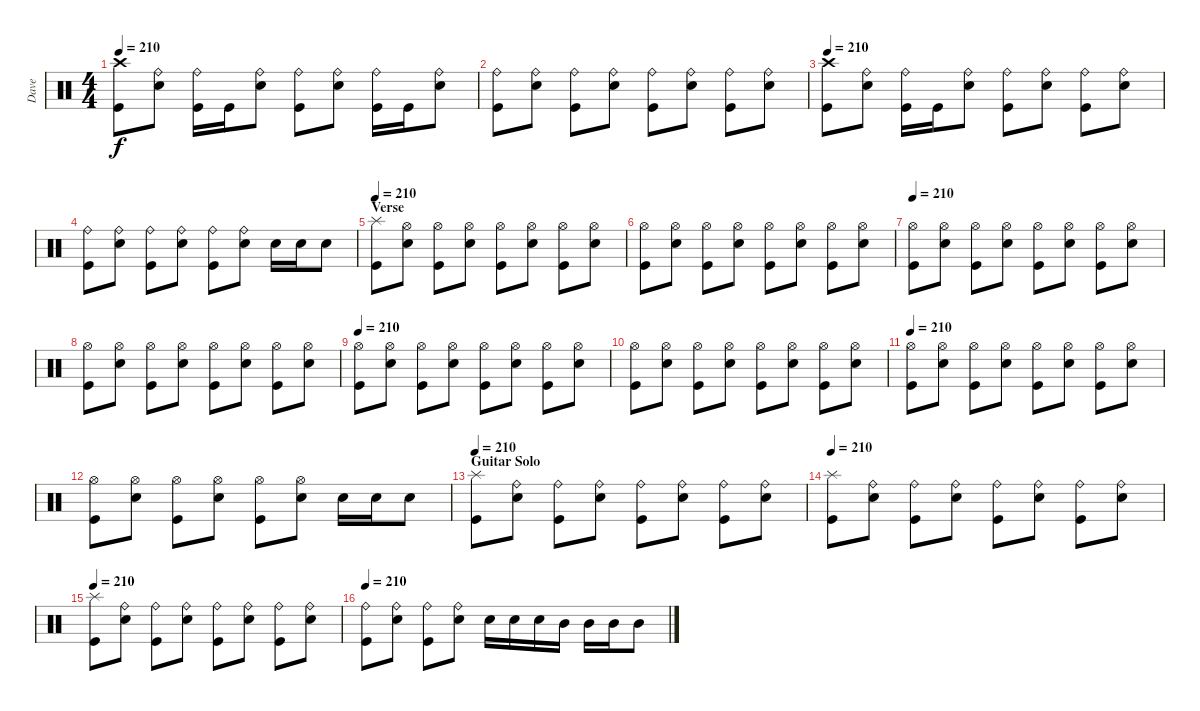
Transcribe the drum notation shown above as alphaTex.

\track ("Dave" "Dave") {instrument percussion}
\staff {score}
\articulation defaults
\ts (4 4)
\tempo 210
\clef neutral
\ks c
("Kick (hit)" "Crash high (hit)").8{dy f} ("Electric Snare (hit)" "Ride (bell)").8 ("Kick (hit)" "Ride (bell)").16 "Kick (hit)".16 ("Electric Snare (hit)" "Ride (bell)").8 ("Kick (hit)" "Ride (bell)").8 ("Electric Snare (hit)" "Ride (bell)").8 ("Kick (hit)" "Ride (bell)").16 "Kick (hit)".16 ("Electric Snare (hit)" "Ride (bell)").8 |
("Kick (hit)" "Ride (bell)").8 ("Electric Snare (hit)" "Ride (bell)").8 ("Kick (hit)" "Ride (bell)").8 ("Electric Snare (hit)" "Ride (bell)").8 ("Kick (hit)" "Ride (bell)").8 ("Electric Snare (hit)" "Ride (bell)").8 ("Kick (hit)" "Ride (bell)").8 ("Electric Snare (hit)" "Ride (bell)").8 |
\tempo 210
("Kick (hit)" "Crash high (hit)").8 ("Electric Snare (hit)" "Ride (bell)").8 ("Kick (hit)" "Ride (bell)").16 "Kick (hit)".16 ("Electric Snare (hit)" "Ride (bell)").8 ("Kick (hit)" "Ride (bell)").8 ("Electric Snare (hit)" "Ride (bell)").8 ("Kick (hit)" "Ride (bell)").8 ("Electric Snare (hit)" "Ride (bell)").8 |
("Kick (hit)" "Ride (bell)").8 ("Electric Snare (hit)" "Ride (bell)").8 ("Kick (hit)" "Ride (bell)").8 ("Electric Snare (hit)" "Ride (bell)").8 ("Kick (hit)" "Ride (bell)").8 ("Electric Snare (hit)" "Ride (bell)").8 "Electric Snare (hit)".16 "Electric Snare (hit)".16 "Electric Snare (hit)".8 |
\section ("" "Verse")
\tempo 210
("Kick (hit)" "Splash (hit)").8 ("Electric Snare (hit)" "Hi-Hat (open)").8 ("Kick (hit)" "Hi-Hat (open)").8 ("Electric Snare (hit)" "Hi-Hat (open)").8 ("Kick (hit)" "Hi-Hat (open)").8 ("Electric Snare (hit)" "Hi-Hat (open)").8 ("Kick (hit)" "Hi-Hat (open)").8 ("Electric Snare (hit)" "Hi-Hat (open)").8 |
("Kick (hit)" "Hi-Hat (open)").8 ("Electric Snare (hit)" "Hi-Hat (open)").8 ("Kick (hit)" "Hi-Hat (open)").8 ("Electric Snare (hit)" "Hi-Hat (open)").8 ("Kick (hit)" "Hi-Hat (open)").8 ("Electric Snare (hit)" "Hi-Hat (open)").8 ("Kick (hit)" "Hi-Hat (open)").8 ("Electric Snare (hit)" "Hi-Hat (open)").8 |
\tempo 210
("Kick (hit)" "Hi-Hat (open)").8 ("Electric Snare (hit)" "Hi-Hat (open)").8 ("Kick (hit)" "Hi-Hat (open)").8 ("Electric Snare (hit)" "Hi-Hat (open)").8 ("Kick (hit)" "Hi-Hat (open)").8 ("Electric Snare (hit)" "Hi-Hat (open)").8 ("Kick (hit)" "Hi-Hat (open)").8 ("Electric Snare (hit)" "Hi-Hat (open)").8 |
("Kick (hit)" "Hi-Hat (open)").8 ("Electric Snare (hit)" "Hi-Hat (open)").8 ("Kick (hit)" "Hi-Hat (open)").8 ("Electric Snare (hit)" "Hi-Hat (open)").8 ("Kick (hit)" "Hi-Hat (open)").8 ("Electric Snare (hit)" "Hi-Hat (open)").8 ("Kick (hit)" "Hi-Hat (open)").8 ("Electric Snare (hit)" "Hi-Hat (open)").8 |
\tempo 210
("Kick (hit)" "Hi-Hat (open)").8 ("Electric Snare (hit)" "Hi-Hat (open)").8 ("Kick (hit)" "Hi-Hat (open)").8 ("Electric Snare (hit)" "Hi-Hat (open)").8 ("Kick (hit)" "Hi-Hat (open)").8 ("Electric Snare (hit)" "Hi-Hat (open)").8 ("Kick (hit)" "Hi-Hat (open)").8 ("Electric Snare (hit)" "Hi-Hat (open)").8 |
("Kick (hit)" "Hi-Hat (open)").8 ("Electric Snare (hit)" "Hi-Hat (open)").8 ("Kick (hit)" "Hi-Hat (open)").8 ("Electric Snare (hit)" "Hi-Hat (open)").8 ("Kick (hit)" "Hi-Hat (open)").8 ("Electric Snare (hit)" "Hi-Hat (open)").8 ("Kick (hit)" "Hi-Hat (open)").8 ("Electric Snare (hit)" "Hi-Hat (open)").8 |
\tempo 210
("Kick (hit)" "Hi-Hat (open)").8 ("Electric Snare (hit)" "Hi-Hat (open)").8 ("Kick (hit)" "Hi-Hat (open)").8 ("Electric Snare (hit)" "Hi-Hat (open)").8 ("Kick (hit)" "Hi-Hat (open)").8 ("Electric Snare (hit)" "Hi-Hat (open)").8 ("Kick (hit)" "Hi-Hat (open)").8 ("Electric Snare (hit)" "Hi-Hat (open)").8 |
("Kick (hit)" "Hi-Hat (open)").8 ("Electric Snare (hit)" "Hi-Hat (open)").8 ("Kick (hit)" "Hi-Hat (open)").8 ("Electric Snare (hit)" "Hi-Hat (open)").8 ("Kick (hit)" "Hi-Hat (open)").8 ("Electric Snare (hit)" "Hi-Hat (open)").8 "Electric Snare (hit)".16 "Electric Snare (hit)".16 "Electric Snare (hit)".8 |
\section ("" "Guitar Solo")
\tempo 210
("Kick (hit)" "Splash (hit)").8 ("Electric Snare (hit)" "Ride (bell)").8 ("Kick (hit)" "Ride (bell)").8 ("Electric Snare (hit)" "Ride (bell)").8 ("Kick (hit)" "Ride (bell)").8 ("Electric Snare (hit)" "Ride (bell)").8 ("Kick (hit)" "Ride (bell)").8 ("Electric Snare (hit)" "Ride (bell)").8 |
\tempo 210
("Kick (hit)" "Splash (hit)").8 ("Electric Snare (hit)" "Ride (bell)").8 ("Kick (hit)" "Ride (bell)").8 ("Electric Snare (hit)" "Ride (bell)").8 ("Kick (hit)" "Ride (bell)").8 ("Electric Snare (hit)" "Ride (bell)").8 ("Kick (hit)" "Ride (bell)").8 ("Electric Snare (hit)" "Ride (bell)").8 |
\tempo 210
("Kick (hit)" "Splash (hit)").8 ("Electric Snare (hit)" "Ride (bell)").8 ("Kick (hit)" "Ride (bell)").8 ("Electric Snare (hit)" "Ride (bell)").8 ("Kick (hit)" "Ride (bell)").8 ("Electric Snare (hit)" "Ride (bell)").8 ("Kick (hit)" "Ride (bell)").8 ("Electric Snare (hit)" "Ride (bell)").8 |
\tempo 210
("Kick (hit)" "Ride (bell)").8 ("Electric Snare (hit)" "Ride (bell)").8 ("Kick (hit)" "Ride (bell)").8 ("Electric Snare (hit)" "Ride (bell)").8 "Electric Snare (hit)".16 "Electric Snare (hit)".16 "Electric Snare (hit)".16 "Mid Tom (hit)".16 "Mid Tom (hit)".16 "Mid Tom (hit)".16 "Mid Tom (hit)".8
